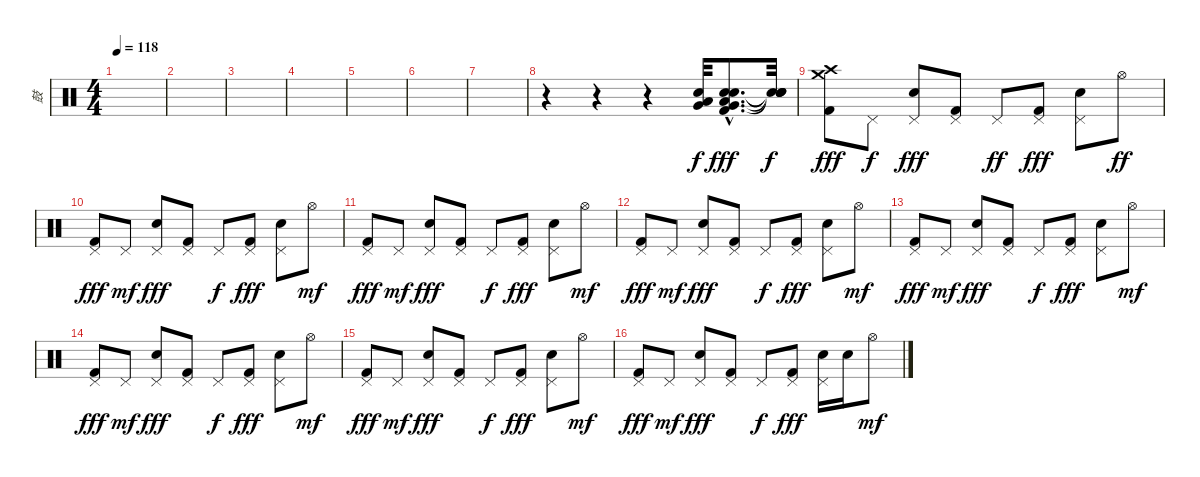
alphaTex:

\track ("鼓" "鼓") {instrument percussion}
\staff {score}
\articulation defaults
\ts (4 4)
\tempo 118
\clef neutral
\ks c
|
|
|
|
|
|
|
r.4 r.4 r.4 ("Electric Snare (hit)" "Low Tom (hit)" "Very Low Tom (hit)").32 ("Very Low Tom (hit)"{hac} "Electric Snare (hit)"{hac} "Snare (hit) 2"{hac} "Low Tom (hit)"{hac} "Kick (hit) 2"{hac}).8{d dy fff} ("Snare (hit)"{t} "Snare (hit)"{t} "Snare (hit)"{t} "Snare (hit)"{t}).32{dy f} |
("Crash medium (hit)" "Crash high (hit)" "Kick (hit) 2").8{dy fff} "Pedal Hi-Hat (hit)".8{dy f} ("Pedal Hi-Hat (hit)" "Snare (hit) 2").8{dy fff} ("Pedal Hi-Hat (hit)" "Kick (hit) 2").8 "Pedal Hi-Hat (hit)".8{dy ff} ("Pedal Hi-Hat (hit)" "Kick (hit) 2").8{dy fff} ("Pedal Hi-Hat (hit)" "Snare (hit) 2").8 "Hi-Hat (open)".8{dy ff} |
("Pedal Hi-Hat (hit)" "Kick (hit) 2").8{dy fff} "Pedal Hi-Hat (hit)".8{dy mf} ("Pedal Hi-Hat (hit)" "Snare (hit) 2").8{dy fff} ("Pedal Hi-Hat (hit)" "Kick (hit) 2").8 "Pedal Hi-Hat (hit)".8{dy f} ("Pedal Hi-Hat (hit)" "Kick (hit) 2").8{dy fff} ("Pedal Hi-Hat (hit)" "Snare (hit) 2").8 "Hi-Hat (open)".8{dy mf} |
("Pedal Hi-Hat (hit)" "Kick (hit) 2").8{dy fff} "Pedal Hi-Hat (hit)".8{dy mf} ("Pedal Hi-Hat (hit)" "Snare (hit) 2").8{dy fff} ("Pedal Hi-Hat (hit)" "Kick (hit) 2").8 "Pedal Hi-Hat (hit)".8{dy f} ("Pedal Hi-Hat (hit)" "Kick (hit) 2").8{dy fff} ("Pedal Hi-Hat (hit)" "Snare (hit) 2").8 "Hi-Hat (open)".8{dy mf} |
("Pedal Hi-Hat (hit)" "Kick (hit) 2").8{dy fff} "Pedal Hi-Hat (hit)".8{dy mf} ("Pedal Hi-Hat (hit)" "Snare (hit) 2").8{dy fff} ("Pedal Hi-Hat (hit)" "Kick (hit) 2").8 "Pedal Hi-Hat (hit)".8{dy f} ("Pedal Hi-Hat (hit)" "Kick (hit) 2").8{dy fff} ("Pedal Hi-Hat (hit)" "Snare (hit) 2").8 "Hi-Hat (open)".8{dy mf} |
("Pedal Hi-Hat (hit)" "Kick (hit) 2").8{dy fff} "Pedal Hi-Hat (hit)".8{dy mf} ("Pedal Hi-Hat (hit)" "Snare (hit) 2").8{dy fff} ("Pedal Hi-Hat (hit)" "Kick (hit) 2").8 "Pedal Hi-Hat (hit)".8{dy f} ("Pedal Hi-Hat (hit)" "Kick (hit) 2").8{dy fff} ("Pedal Hi-Hat (hit)" "Snare (hit) 2").8 "Hi-Hat (open)".8{dy mf} |
("Pedal Hi-Hat (hit)" "Kick (hit) 2").8{dy fff} "Pedal Hi-Hat (hit)".8{dy mf} ("Pedal Hi-Hat (hit)" "Snare (hit) 2").8{dy fff} ("Pedal Hi-Hat (hit)" "Kick (hit) 2").8 "Pedal Hi-Hat (hit)".8{dy f} ("Pedal Hi-Hat (hit)" "Kick (hit) 2").8{dy fff} ("Pedal Hi-Hat (hit)" "Snare (hit) 2").8 "Hi-Hat (open)".8{dy mf} |
("Pedal Hi-Hat (hit)" "Kick (hit) 2").8{dy fff} "Pedal Hi-Hat (hit)".8{dy mf} ("Pedal Hi-Hat (hit)" "Snare (hit) 2").8{dy fff} ("Pedal Hi-Hat (hit)" "Kick (hit) 2").8 "Pedal Hi-Hat (hit)".8{dy f} ("Pedal Hi-Hat (hit)" "Kick (hit) 2").8{dy fff} ("Pedal Hi-Hat (hit)" "Snare (hit) 2").8 "Hi-Hat (open)".8{dy mf} |
("Pedal Hi-Hat (hit)" "Kick (hit) 2").8{dy fff} "Pedal Hi-Hat (hit)".8{dy mf} ("Pedal Hi-Hat (hit)" "Snare (hit) 2").8{dy fff} ("Pedal Hi-Hat (hit)" "Kick (hit) 2").8 "Pedal Hi-Hat (hit)".8{dy f} ("Pedal Hi-Hat (hit)" "Kick (hit) 2").8{dy fff} ("Pedal Hi-Hat (hit)" "Snare (hit) 2").16 "Snare (hit) 2".16 "Hi-Hat (open)".8{dy mf}
